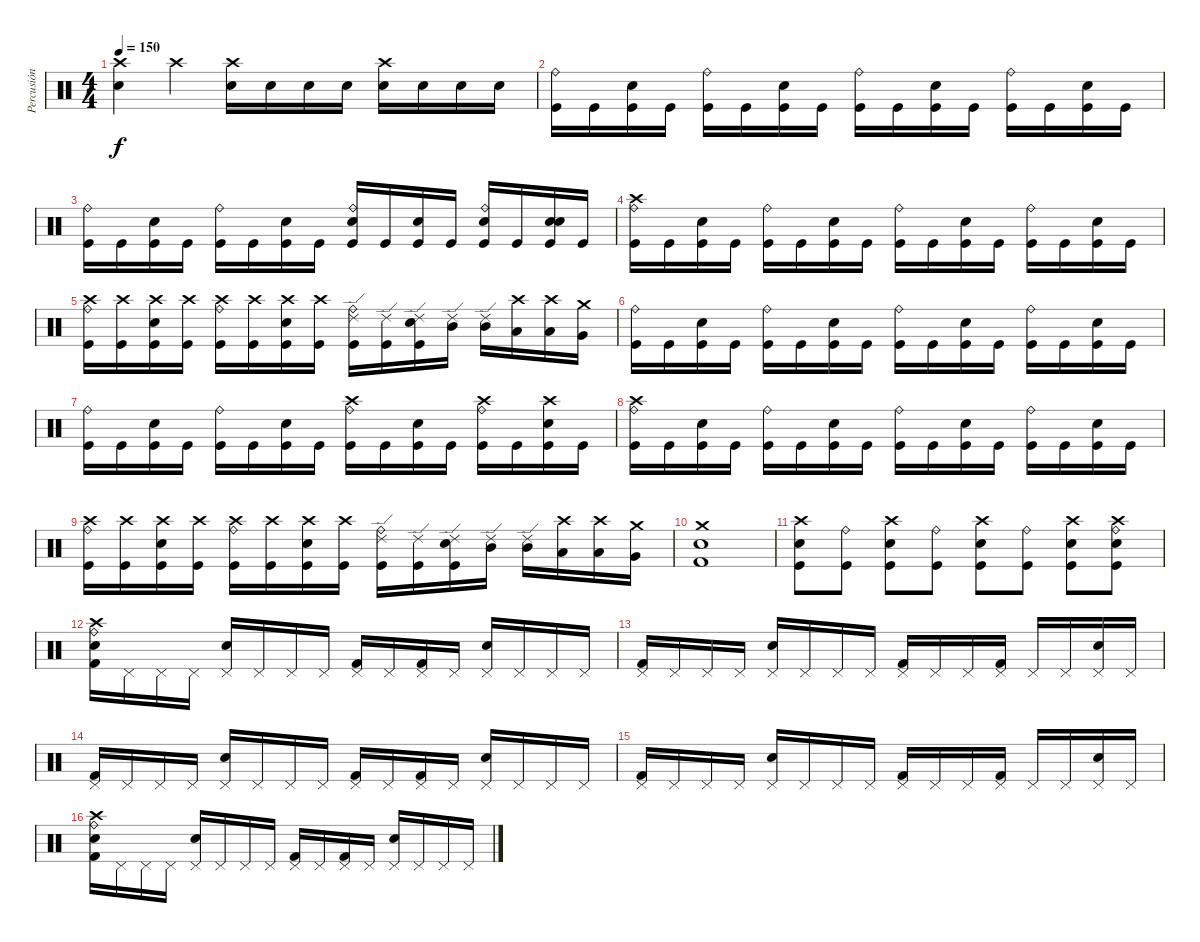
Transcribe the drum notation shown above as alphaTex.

\track ("Percusión" "Percusión") {instrument percussion}
\staff {score}
\articulation defaults
\ts (4 4)
\tempo 150
\clef neutral
\ks c
("Crash high (hit)" "Electric Snare (hit)").4{dy f} "Crash high (hit)".4 ("Electric Snare (hit)" "Crash high (hit)").16 "Electric Snare (hit)".16 "Electric Snare (hit)".16 "Electric Snare (hit)".16 ("Electric Snare (hit)" "Crash high (hit)").16 "Electric Snare (hit)".16 "Electric Snare (hit)".16 "Electric Snare (hit)".16 |
("Ride (bell)" "Kick (hit)").16 "Kick (hit)".16 ("Electric Snare (hit)" "Kick (hit)").16 "Kick (hit)".16 ("Ride (bell)" "Kick (hit)").16 "Kick (hit)".16 ("Electric Snare (hit)" "Kick (hit)").16 "Kick (hit)".16 ("Ride (bell)" "Kick (hit)").16 "Kick (hit)".16 ("Electric Snare (hit)" "Kick (hit)").16 "Kick (hit)".16 ("Ride (bell)" "Kick (hit)").16 "Kick (hit)".16 ("Electric Snare (hit)" "Kick (hit)").16 "Kick (hit)".16 |
("Ride (bell)" "Kick (hit)").16 "Kick (hit)".16 ("Electric Snare (hit)" "Kick (hit)").16 "Kick (hit)".16 ("Ride (bell)" "Kick (hit)").16 "Kick (hit)".16 ("Electric Snare (hit)" "Kick (hit)").16 "Kick (hit)".16 ("Electric Snare (hit)" "Ride (bell)" "Kick (hit)").16 "Kick (hit)".16 ("Electric Snare (hit)" "Kick (hit)").16 "Kick (hit)".16 ("Electric Snare (hit)" "Ride (bell)" "Kick (hit)").16 "Kick (hit)".16 ("Electric Snare (hit)" "Electric Snare (hit)" "Kick (hit)").16 "Kick (hit)".16 |
("Crash high (hit)" "Ride (bell)" "Kick (hit)").16 "Kick (hit)".16 ("Electric Snare (hit)" "Kick (hit)").16 "Kick (hit)".16 ("Ride (bell)" "Kick (hit)").16 "Kick (hit)".16 ("Electric Snare (hit)" "Kick (hit)").16 "Kick (hit)".16 ("Ride (bell)" "Kick (hit)").16 "Kick (hit)".16 ("Electric Snare (hit)" "Kick (hit)").16 "Kick (hit)".16 ("Ride (bell)" "Kick (hit)").16 "Kick (hit)".16 ("Electric Snare (hit)" "Kick (hit)").16 "Kick (hit)".16 |
("Crash high (hit)" "Ride (bell)" "Kick (hit)").16 ("Crash high (hit)" "Kick (hit)").16 ("Crash high (hit)" "Electric Snare (hit)" "Kick (hit)").16 ("Crash high (hit)" "Kick (hit)").16 ("Crash high (hit)" "Ride (bell)" "Kick (hit)").16 ("Crash high (hit)" "Kick (hit)").16 ("Crash high (hit)" "Electric Snare (hit)" "Kick (hit)").16 ("Crash high (hit)" "Kick (hit)").16 ("Ride (edge) 2" "Ride (bell)" "Kick (hit)").16 ("Ride (edge) 2" "Kick (hit)").16 ("Ride (edge) 2" "Electric Snare (hit)" "Kick (hit)").16 ("Ride (edge) 2" "Mid Tom (hit)").16 ("Ride (edge) 2" "Mid Tom (hit)").16 ("Crash high (hit)" "Low Tom (hit)").16 ("Crash high (hit)" "Low Tom (hit)").16 ("Crash medium (hit)" "Very Low Tom (hit)").16 |
("Ride (bell)" "Kick (hit)").16 "Kick (hit)".16 ("Electric Snare (hit)" "Kick (hit)").16 "Kick (hit)".16 ("Ride (bell)" "Kick (hit)").16 "Kick (hit)".16 ("Electric Snare (hit)" "Kick (hit)").16 "Kick (hit)".16 ("Ride (bell)" "Kick (hit)").16 "Kick (hit)".16 ("Electric Snare (hit)" "Kick (hit)").16 "Kick (hit)".16 ("Ride (bell)" "Kick (hit)").16 "Kick (hit)".16 ("Electric Snare (hit)" "Kick (hit)").16 "Kick (hit)".16 |
("Ride (bell)" "Kick (hit)").16 "Kick (hit)".16 ("Electric Snare (hit)" "Kick (hit)").16 "Kick (hit)".16 ("Ride (bell)" "Kick (hit)").16 "Kick (hit)".16 ("Electric Snare (hit)" "Kick (hit)").16 "Kick (hit)".16 ("Crash high (hit)" "Ride (bell)" "Kick (hit)").16 "Kick (hit)".16 ("Electric Snare (hit)" "Kick (hit)").16 "Kick (hit)".16 ("Crash high (hit)" "Ride (bell)" "Kick (hit)").16 "Kick (hit)".16 ("Crash high (hit)" "Electric Snare (hit)" "Kick (hit)").16 "Kick (hit)".16 |
("Crash high (hit)" "Ride (bell)" "Kick (hit)").16 "Kick (hit)".16 ("Electric Snare (hit)" "Kick (hit)").16 "Kick (hit)".16 ("Ride (bell)" "Kick (hit)").16 "Kick (hit)".16 ("Electric Snare (hit)" "Kick (hit)").16 "Kick (hit)".16 ("Ride (bell)" "Kick (hit)").16 "Kick (hit)".16 ("Electric Snare (hit)" "Kick (hit)").16 "Kick (hit)".16 ("Ride (bell)" "Kick (hit)").16 "Kick (hit)".16 ("Electric Snare (hit)" "Kick (hit)").16 "Kick (hit)".16 |
("Crash high (hit)" "Ride (bell)" "Kick (hit)").16 ("Crash high (hit)" "Kick (hit)").16 ("Crash high (hit)" "Electric Snare (hit)" "Kick (hit)").16 ("Crash high (hit)" "Kick (hit)").16 ("Crash high (hit)" "Ride (bell)" "Kick (hit)").16 ("Crash high (hit)" "Kick (hit)").16 ("Crash high (hit)" "Electric Snare (hit)" "Kick (hit)").16 ("Crash high (hit)" "Kick (hit)").16 ("Ride (edge) 2" "Ride (bell)" "Kick (hit)").16 ("Ride (edge) 2" "Kick (hit)").16 ("Ride (edge) 2" "Electric Snare (hit)" "Kick (hit)").16 ("Ride (edge) 2" "Mid Tom (hit)").16 ("Ride (edge) 2" "Mid Tom (hit)").16 ("Crash high (hit)" "Low Tom (hit)").16 ("Crash high (hit)" "Low Tom (hit)").16 ("Crash medium (hit)" "Very Low Tom (hit)").16 |
("Crash medium (hit)" "Electric Snare (hit)" "Kick (hit) 2").1 |
("Crash high (hit)" "Electric Snare (hit)" "Kick (hit)").8 ("Ride (bell)" "Kick (hit)").8 ("Crash high (hit)" "Electric Snare (hit)" "Kick (hit)").8 ("Ride (bell)" "Kick (hit)").8 ("Crash high (hit)" "Electric Snare (hit)" "Kick (hit)").8 ("Ride (bell)" "Kick (hit)").8 ("Crash high (hit)" "Electric Snare (hit)" "Kick (hit)").8 ("Crash high (hit)" "Ride (bell)" "Electric Snare (hit)" "Kick (hit)").8 |
("Crash high (hit)" "Ride (bell)" "Electric Snare (hit)" "Kick (hit) 2").16 "Pedal Hi-Hat (hit)".16 "Pedal Hi-Hat (hit)".16 "Pedal Hi-Hat (hit)".16 ("Pedal Hi-Hat (hit)" "Electric Snare (hit)").16 "Pedal Hi-Hat (hit)".16 "Pedal Hi-Hat (hit)".16 "Pedal Hi-Hat (hit)".16 ("Pedal Hi-Hat (hit)" "Kick (hit) 2").16 "Pedal Hi-Hat (hit)".16 ("Pedal Hi-Hat (hit)" "Kick (hit) 2").16 "Pedal Hi-Hat (hit)".16 ("Pedal Hi-Hat (hit)" "Electric Snare (hit)").16 "Pedal Hi-Hat (hit)".16 "Pedal Hi-Hat (hit)".16 "Pedal Hi-Hat (hit)".16 |
("Pedal Hi-Hat (hit)" "Kick (hit) 2").16 "Pedal Hi-Hat (hit)".16 "Pedal Hi-Hat (hit)".16 "Pedal Hi-Hat (hit)".16 ("Pedal Hi-Hat (hit)" "Electric Snare (hit)").16 "Pedal Hi-Hat (hit)".16 "Pedal Hi-Hat (hit)".16 "Pedal Hi-Hat (hit)".16 ("Pedal Hi-Hat (hit)" "Kick (hit) 2").16 "Pedal Hi-Hat (hit)".16 "Pedal Hi-Hat (hit)".16 ("Pedal Hi-Hat (hit)" "Kick (hit) 2").16 "Pedal Hi-Hat (hit)".16 "Pedal Hi-Hat (hit)".16 ("Pedal Hi-Hat (hit)" "Electric Snare (hit)").16 "Pedal Hi-Hat (hit)".16 |
("Pedal Hi-Hat (hit)" "Kick (hit) 2").16 "Pedal Hi-Hat (hit)".16 "Pedal Hi-Hat (hit)".16 "Pedal Hi-Hat (hit)".16 ("Pedal Hi-Hat (hit)" "Electric Snare (hit)").16 "Pedal Hi-Hat (hit)".16 "Pedal Hi-Hat (hit)".16 "Pedal Hi-Hat (hit)".16 ("Pedal Hi-Hat (hit)" "Kick (hit) 2").16 "Pedal Hi-Hat (hit)".16 ("Pedal Hi-Hat (hit)" "Kick (hit) 2").16 "Pedal Hi-Hat (hit)".16 ("Pedal Hi-Hat (hit)" "Electric Snare (hit)").16 "Pedal Hi-Hat (hit)".16 "Pedal Hi-Hat (hit)".16 "Pedal Hi-Hat (hit)".16 |
("Pedal Hi-Hat (hit)" "Kick (hit) 2").16 "Pedal Hi-Hat (hit)".16 "Pedal Hi-Hat (hit)".16 "Pedal Hi-Hat (hit)".16 ("Pedal Hi-Hat (hit)" "Electric Snare (hit)").16 "Pedal Hi-Hat (hit)".16 "Pedal Hi-Hat (hit)".16 "Pedal Hi-Hat (hit)".16 ("Pedal Hi-Hat (hit)" "Kick (hit) 2").16 "Pedal Hi-Hat (hit)".16 "Pedal Hi-Hat (hit)".16 ("Pedal Hi-Hat (hit)" "Kick (hit) 2").16 "Pedal Hi-Hat (hit)".16 "Pedal Hi-Hat (hit)".16 ("Pedal Hi-Hat (hit)" "Electric Snare (hit)").16 "Pedal Hi-Hat (hit)".16 |
("Crash high (hit)" "Ride (bell)" "Electric Snare (hit)" "Kick (hit) 2").16 "Pedal Hi-Hat (hit)".16 "Pedal Hi-Hat (hit)".16 "Pedal Hi-Hat (hit)".16 ("Pedal Hi-Hat (hit)" "Electric Snare (hit)").16 "Pedal Hi-Hat (hit)".16 "Pedal Hi-Hat (hit)".16 "Pedal Hi-Hat (hit)".16 ("Pedal Hi-Hat (hit)" "Kick (hit) 2").16 "Pedal Hi-Hat (hit)".16 ("Pedal Hi-Hat (hit)" "Kick (hit) 2").16 "Pedal Hi-Hat (hit)".16 ("Pedal Hi-Hat (hit)" "Electric Snare (hit)").16 "Pedal Hi-Hat (hit)".16 "Pedal Hi-Hat (hit)".16 "Pedal Hi-Hat (hit)".16
